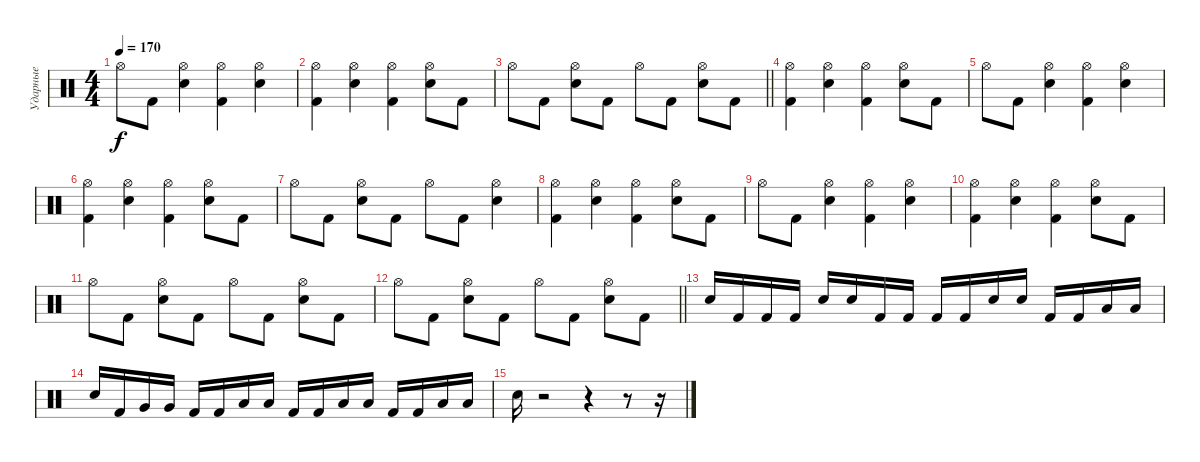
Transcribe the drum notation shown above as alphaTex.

\track ("Ударные" "Ударные") {instrument percussion}
\staff {score}
\articulation defaults
\ts (4 4)
\tempo 170
\clef neutral
\ks c "Hi-Hat (open)".8{dy f} "Kick (hit) 2".8
("Hi-Hat (open)" "Electric Snare (hit)").4 ("Hi-Hat (open)" "Kick (hit) 2").4 ("Hi-Hat (open)" "Electric Snare (hit)").4 |
("Hi-Hat (open)" "Kick (hit) 2").4 ("Hi-Hat (open)" "Electric Snare (hit)").4 ("Hi-Hat (open)" "Kick (hit) 2").4 ("Hi-Hat (open)" "Electric Snare (hit)").8 "Kick (hit) 2".8 |
\barLineRight lightlight "Hi-Hat (open)".8 "Kick (hit) 2".8
("Hi-Hat (open)" "Electric Snare (hit)").8 "Kick (hit) 2".8 "Hi-Hat (open)".8 "Kick (hit) 2".8 ("Hi-Hat (open)" "Electric Snare (hit)").8 "Kick (hit) 2".8 |
("Hi-Hat (open)" "Kick (hit) 2").4 ("Hi-Hat (open)" "Electric Snare (hit)").4 ("Hi-Hat (open)" "Kick (hit) 2").4 ("Hi-Hat (open)" "Electric Snare (hit)").8 "Kick (hit) 2".8 |
"Hi-Hat (open)".8 "Kick (hit) 2".8 ("Hi-Hat (open)" "Electric Snare (hit)").4 ("Hi-Hat (open)" "Kick (hit) 2").4 ("Hi-Hat (open)" "Electric Snare (hit)").4 |
("Hi-Hat (open)" "Kick (hit) 2").4 ("Hi-Hat (open)" "Electric Snare (hit)").4 ("Hi-Hat (open)" "Kick (hit) 2").4 ("Hi-Hat (open)" "Electric Snare (hit)").8 "Kick (hit) 2".8 |
"Hi-Hat (open)".8 "Kick (hit) 2".8 ("Hi-Hat (open)" "Electric Snare (hit)").8 "Kick (hit) 2".8 "Hi-Hat (open)".8 "Kick (hit) 2".8 ("Hi-Hat (open)" "Electric Snare (hit)").4 |
("Hi-Hat (open)" "Kick (hit) 2").4 ("Hi-Hat (open)" "Electric Snare (hit)").4 ("Hi-Hat (open)" "Kick (hit) 2").4 ("Hi-Hat (open)" "Electric Snare (hit)").8 "Kick (hit) 2".8 |
"Hi-Hat (open)".8 "Kick (hit) 2".8 ("Hi-Hat (open)" "Electric Snare (hit)").4 ("Hi-Hat (open)" "Kick (hit) 2").4 ("Hi-Hat (open)" "Electric Snare (hit)").4 |
("Hi-Hat (open)" "Kick (hit) 2").4 ("Hi-Hat (open)" "Electric Snare (hit)").4 ("Hi-Hat (open)" "Kick (hit) 2").4 ("Hi-Hat (open)" "Electric Snare (hit)").8 "Kick (hit) 2".8 |
"Hi-Hat (open)".8 "Kick (hit) 2".8 ("Hi-Hat (open)" "Electric Snare (hit)").8 "Kick (hit) 2".8 "Hi-Hat (open)".8 "Kick (hit) 2".8 ("Hi-Hat (open)" "Electric Snare (hit)").8 "Kick (hit) 2".8 |
\barLineRight lightlight "Hi-Hat (open)".8 "Kick (hit) 2".8
("Hi-Hat (open)" "Electric Snare (hit)").8 "Kick (hit) 2".8 "Hi-Hat (open)".8 "Kick (hit) 2".8 ("Hi-Hat (open)" "Electric Snare (hit)").8 "Kick (hit) 2".8 |
"Electric Snare (hit)".16 "Kick (hit) 2".16 "Kick (hit) 2".16 "Kick (hit) 2".16 "Electric Snare (hit)".16 "Electric Snare (hit)".16 "Kick (hit) 2".16 "Kick (hit) 2".16 "Kick (hit) 2".16 "Kick (hit) 2".16 "Snare (hit) 2".16 "Snare (hit) 2".16 "Kick (hit) 2".16 "Kick (hit) 2".16 "Low Floor Tom (hit)".16 "Low Floor Tom (hit)".16 |
"Electric Snare (hit)".16 "Kick (hit) 2".16 "Very Low Tom (hit)".16 "Very Low Tom (hit)".16 "Kick (hit) 2".16 "Kick (hit) 2".16 "Low Floor Tom (hit)".16 "Low Floor Tom (hit)".16 "Kick (hit) 2".16 "Kick (hit) 2".16 "Low Tom (hit)".16 "Low Tom (hit)".16 "Kick (hit) 2".16 "Kick (hit) 2".16 "Low Floor Tom (hit)".16 "Low Floor Tom (hit)".16 |
"Electric Snare (hit)".16 r.2 r.4 r.8 r.16
